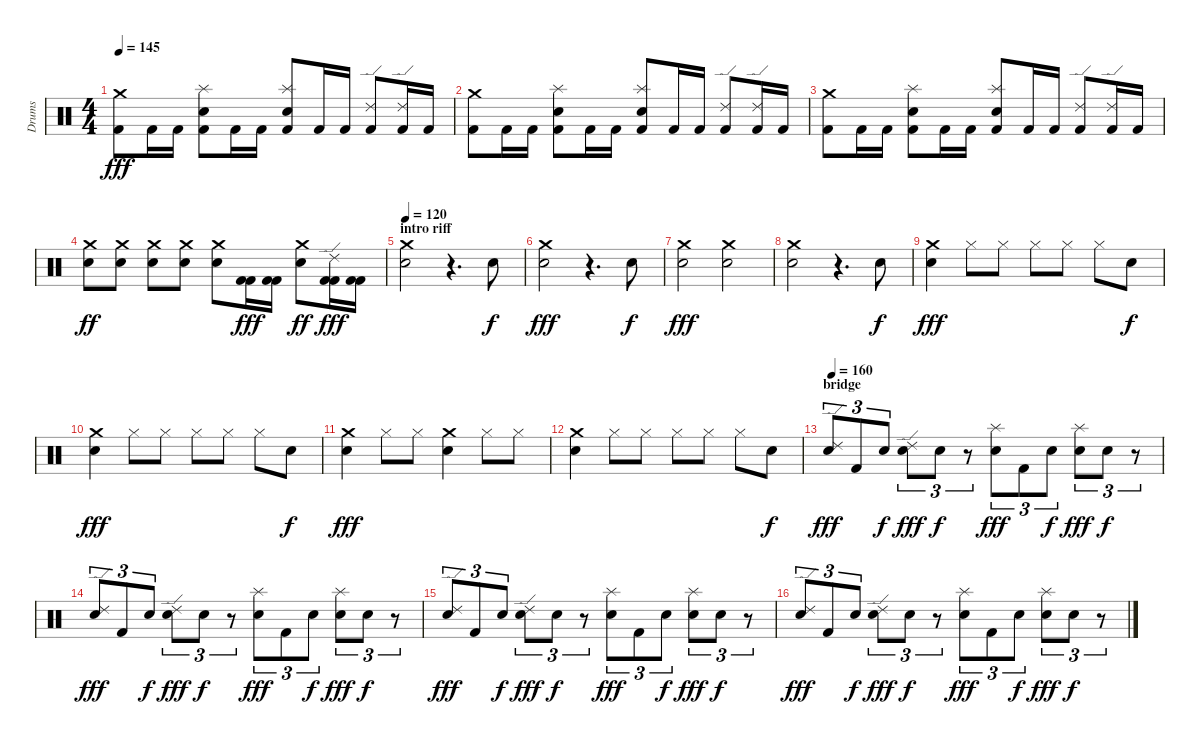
\track ("Drums" "Drums") {instrument percussion}
\staff {score}
\articulation defaults
\ts (4 4)
\tempo 145
\clef neutral
\ks c
("Crash medium (hit)" "Kick (hit) 2").8{dy fff} "Kick (hit) 2".16 "Kick (hit) 2".16 ("Electric Snare (hit)" "Kick (hit) 2" "Splash (hit)").8{balance 0} "Kick (hit) 2".16{balance 8} "Kick (hit) 2".16 ("Snare (hit) 2" "Kick (hit) 2" "Splash (hit)").8{balance 16} "Kick (hit) 2".16{balance 8} "Kick (hit) 2".16 ("Ride (edge) 2" "Kick (hit) 2").8 ("Ride (edge) 2" "Kick (hit) 2").16 "Kick (hit) 2".16 |
("Crash medium (hit)" "Kick (hit) 2").8 "Kick (hit) 2".16 "Kick (hit) 2".16 ("Electric Snare (hit)" "Kick (hit) 2" "Splash (hit)").8{balance 0} "Kick (hit) 2".16{balance 8} "Kick (hit) 2".16 ("Snare (hit) 2" "Kick (hit) 2" "Splash (hit)").8{balance 16} "Kick (hit) 2".16{balance 8} "Kick (hit) 2".16 ("Ride (edge) 2" "Kick (hit) 2").8 ("Ride (edge) 2" "Kick (hit) 2").16 "Kick (hit) 2".16 |
("Crash medium (hit)" "Kick (hit) 2").8 "Kick (hit) 2".16 "Kick (hit) 2".16 ("Electric Snare (hit)" "Kick (hit) 2" "Splash (hit)").8{balance 0} "Kick (hit) 2".16{balance 8} "Kick (hit) 2".16 ("Snare (hit) 2" "Kick (hit) 2" "Splash (hit)").8{balance 16} "Kick (hit) 2".16{balance 8} "Kick (hit) 2".16 ("Ride (edge) 2" "Kick (hit) 2").8 ("Ride (edge) 2" "Kick (hit) 2").16 "Kick (hit) 2".16 |
("Crash medium (hit)" "Electric Snare (hit)").8{dy ff} ("Crash medium (hit)" "Electric Snare (hit)").8 ("Crash medium (hit)" "Electric Snare (hit)").8 ("Crash medium (hit)" "Electric Snare (hit)").8 ("Crash medium (hit)" "Electric Snare (hit)").8 ("Kick (hit) 2" "Kick (hit) 2").16{dy fff} ("Kick (hit) 2" "Kick (hit) 2").16 ("Crash medium (hit)" "Electric Snare (hit)").8{dy ff} ("Ride (edge) 2" "Kick (hit) 2" "Kick (hit) 2").16{dy fff} ("Kick (hit) 2" "Kick (hit) 2").16 |
\section ("" "intro riff")
\tempo 120
("Electric Snare (hit)" "Crash medium (hit)").2 r.4{d} "Electric Snare (hit)".8{dy f} |
("Electric Snare (hit)" "Crash medium (hit)").2{dy fff} r.4{d} "Electric Snare (hit)".8{dy f} |
("Electric Snare (hit)" "Crash medium (hit)").2{dy fff} ("Electric Snare (hit)" "Crash medium (hit)").2 |
("Electric Snare (hit)" "Crash medium (hit)").2 r.4{d} "Electric Snare (hit)".8{dy f} |
("Electric Snare (hit)" "Crash medium (hit)").4{dy fff} "Hi-Hat (closed)".8 "Hi-Hat (closed)".8 "Hi-Hat (closed)".8 "Hi-Hat (closed)".8 "Hi-Hat (closed)".8 "Electric Snare (hit)".8{dy f} |
("Electric Snare (hit)" "Crash medium (hit)").4{dy fff} "Hi-Hat (closed)".8 "Hi-Hat (closed)".8 "Hi-Hat (closed)".8 "Hi-Hat (closed)".8 "Hi-Hat (closed)".8 "Electric Snare (hit)".8{dy f} |
("Crash medium (hit)" "Electric Snare (hit)").4{dy fff} "Hi-Hat (closed)".8 "Hi-Hat (closed)".8 ("Crash medium (hit)" "Electric Snare (hit)").4 "Hi-Hat (closed)".8 "Hi-Hat (closed)".8 |
("Electric Snare (hit)" "Crash medium (hit)").4 "Hi-Hat (closed)".8 "Hi-Hat (closed)".8 "Hi-Hat (closed)".8 "Hi-Hat (closed)".8 "Hi-Hat (closed)".8 "Electric Snare (hit)".8{dy f} |
\section ("" "bridge")
\tempo 160
("Ride (edge) 2" "Electric Snare (hit)").8{tu (3 2) dy fff} "Kick (hit) 2".8{tu (3 2)} "Electric Snare (hit)".8{tu (3 2) dy f} ("Ride (edge) 2" "Electric Snare (hit)").8{tu (3 2) dy fff} "Electric Snare (hit)".8{tu (3 2) dy f} r.8{tu (3 2)} ("Splash (hit)" "Snare (hit) 2").8{tu (3 2) dy fff} "Kick (hit) 2".8{tu (3 2)} "Snare (hit) 2".8{tu (3 2) dy f} ("Splash (hit)" "Snare (hit) 2").8{tu (3 2) dy fff} "Snare (hit) 2".8{tu (3 2) dy f} r.8{tu (3 2)} |
("Ride (edge) 2" "Electric Snare (hit)").8{tu (3 2) dy fff} "Kick (hit) 2".8{tu (3 2)} "Electric Snare (hit)".8{tu (3 2) dy f} ("Ride (edge) 2" "Electric Snare (hit)").8{tu (3 2) dy fff} "Electric Snare (hit)".8{tu (3 2) dy f} r.8{tu (3 2)} ("Splash (hit)" "Snare (hit) 2").8{tu (3 2) dy fff} "Kick (hit) 2".8{tu (3 2)} "Snare (hit) 2".8{tu (3 2) dy f} ("Splash (hit)" "Snare (hit) 2").8{tu (3 2) dy fff} "Snare (hit) 2".8{tu (3 2) dy f} r.8{tu (3 2)} |
("Ride (edge) 2" "Electric Snare (hit)").8{tu (3 2) dy fff} "Kick (hit) 2".8{tu (3 2)} "Electric Snare (hit)".8{tu (3 2) dy f} ("Ride (edge) 2" "Electric Snare (hit)").8{tu (3 2) dy fff} "Electric Snare (hit)".8{tu (3 2) dy f} r.8{tu (3 2)} ("Splash (hit)" "Snare (hit) 2").8{tu (3 2) dy fff} "Kick (hit) 2".8{tu (3 2)} "Snare (hit) 2".8{tu (3 2) dy f} ("Splash (hit)" "Snare (hit) 2").8{tu (3 2) dy fff} "Snare (hit) 2".8{tu (3 2) dy f} r.8{tu (3 2)} |
("Ride (edge) 2" "Electric Snare (hit)").8{tu (3 2) dy fff} "Kick (hit) 2".8{tu (3 2)} "Electric Snare (hit)".8{tu (3 2) dy f} ("Ride (edge) 2" "Electric Snare (hit)").8{tu (3 2) dy fff} "Electric Snare (hit)".8{tu (3 2) dy f} r.8{tu (3 2)} ("Splash (hit)" "Snare (hit) 2").8{tu (3 2) dy fff} "Kick (hit) 2".8{tu (3 2)} "Snare (hit) 2".8{tu (3 2) dy f} ("Splash (hit)" "Snare (hit) 2").8{tu (3 2) dy fff} "Snare (hit) 2".8{tu (3 2) dy f} r.8{tu (3 2)}
